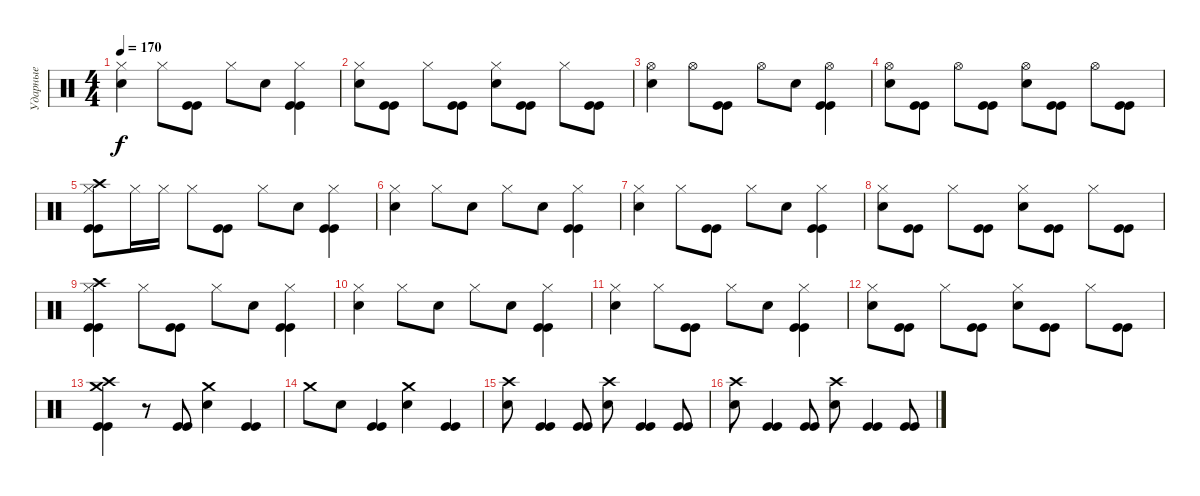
\track ("Ударные" "Ударные") {instrument percussion}
\staff {score}
\articulation defaults
\ts (4 4)
\tempo 170
\clef neutral
\ks c
("Hi-Hat (closed)" "Electric Snare (hit)").4{dy f} "Hi-Hat (closed)".8 ("Kick (hit)" "Kick (hit)").8 "Hi-Hat (closed)".8 "Electric Snare (hit)".8 ("Hi-Hat (closed)" "Kick (hit)" "Kick (hit)").4 |
("Hi-Hat (closed)" "Electric Snare (hit)").8 ("Kick (hit)" "Kick (hit)").8 "Hi-Hat (closed)".8 ("Kick (hit)" "Kick (hit)").8 ("Hi-Hat (closed)" "Electric Snare (hit)").8 ("Kick (hit)" "Kick (hit)").8 "Hi-Hat (closed)".8 ("Kick (hit)" "Kick (hit)").8 |
("Hi-Hat (open)" "Electric Snare (hit)").4 "Hi-Hat (open)".8 ("Kick (hit)" "Kick (hit)").8 "Hi-Hat (open)".8 "Electric Snare (hit)".8 ("Hi-Hat (open)" "Kick (hit)" "Kick (hit)").4 |
("Hi-Hat (open)" "Electric Snare (hit)").8 ("Kick (hit)" "Kick (hit)").8 "Hi-Hat (open)".8 ("Kick (hit)" "Kick (hit)").8 ("Hi-Hat (open)" "Electric Snare (hit)").8 ("Kick (hit)" "Kick (hit)").8 "Hi-Hat (open)".8 ("Kick (hit)" "Kick (hit)").8 |
("Crash high (hit)" "Hi-Hat (closed)" "Kick (hit)" "Kick (hit)").8 "Hi-Hat (closed)".16 "Hi-Hat (closed)".16 "Hi-Hat (closed)".8 ("Kick (hit)" "Kick (hit)").8 "Hi-Hat (closed)".8 "Electric Snare (hit)".8 ("Hi-Hat (closed)" "Kick (hit)" "Kick (hit)").4 |
("Hi-Hat (closed)" "Electric Snare (hit)").4 "Hi-Hat (closed)".8 "Electric Snare (hit)".8 "Hi-Hat (closed)".8 "Electric Snare (hit)".8 ("Hi-Hat (closed)" "Kick (hit)" "Kick (hit)").4 |
("Hi-Hat (closed)" "Electric Snare (hit)").4 "Hi-Hat (closed)".8 ("Kick (hit)" "Kick (hit)").8 "Hi-Hat (closed)".8 "Electric Snare (hit)".8 ("Hi-Hat (closed)" "Kick (hit)" "Kick (hit)").4 |
("Hi-Hat (closed)" "Electric Snare (hit)").8 ("Kick (hit)" "Kick (hit)").8 "Hi-Hat (closed)".8 ("Kick (hit)" "Kick (hit)").8 ("Hi-Hat (closed)" "Electric Snare (hit)").8 ("Kick (hit)" "Kick (hit)").8 "Hi-Hat (closed)".8 ("Kick (hit)" "Kick (hit)").8 |
("Crash high (hit)" "Hi-Hat (closed)" "Kick (hit)" "Kick (hit)").4 "Hi-Hat (closed)".8 ("Kick (hit)" "Kick (hit)").8 "Hi-Hat (closed)".8 "Electric Snare (hit)".8 ("Hi-Hat (closed)" "Kick (hit)" "Kick (hit)").4 |
("Hi-Hat (closed)" "Electric Snare (hit)").4 "Hi-Hat (closed)".8 "Electric Snare (hit)".8 "Hi-Hat (closed)".8 "Electric Snare (hit)".8 ("Hi-Hat (closed)" "Kick (hit)" "Kick (hit)").4 |
("Hi-Hat (closed)" "Electric Snare (hit)").4 "Hi-Hat (closed)".8 ("Kick (hit)" "Kick (hit)").8 "Hi-Hat (closed)".8 "Electric Snare (hit)".8 ("Hi-Hat (closed)" "Kick (hit)" "Kick (hit)").4 |
("Hi-Hat (closed)" "Electric Snare (hit)").8 ("Kick (hit)" "Kick (hit)").8 "Hi-Hat (closed)".8 ("Kick (hit)" "Kick (hit)").8 ("Hi-Hat (closed)" "Electric Snare (hit)").8 ("Kick (hit)" "Kick (hit)").8 "Hi-Hat (closed)".8 ("Kick (hit)" "Kick (hit)").8 |
("Crash high (hit)" "Crash medium (hit)" "Kick (hit)" "Kick (hit)").4 r.8 ("Kick (hit)" "Kick (hit)").8 ("Crash medium (hit)" "Electric Snare (hit)").4 ("Kick (hit)" "Kick (hit)").4 |
"Crash medium (hit)".8 "Electric Snare (hit)".8 ("Kick (hit)" "Kick (hit)").4 ("Crash medium (hit)" "Electric Snare (hit)").4 ("Kick (hit)" "Kick (hit)").4 |
("Crash high (hit)" "Electric Snare (hit)").8 ("Kick (hit)" "Kick (hit)").4 ("Kick (hit)" "Kick (hit)").8 ("Crash high (hit)" "Electric Snare (hit)").8 ("Kick (hit)" "Kick (hit)").4 ("Kick (hit)" "Kick (hit)").8 |
("Crash high (hit)" "Electric Snare (hit)").8 ("Kick (hit)" "Kick (hit)").4 ("Kick (hit)" "Kick (hit)").8 ("Crash high (hit)" "Electric Snare (hit)").8 ("Kick (hit)" "Kick (hit)").4 ("Kick (hit)" "Kick (hit)").8
